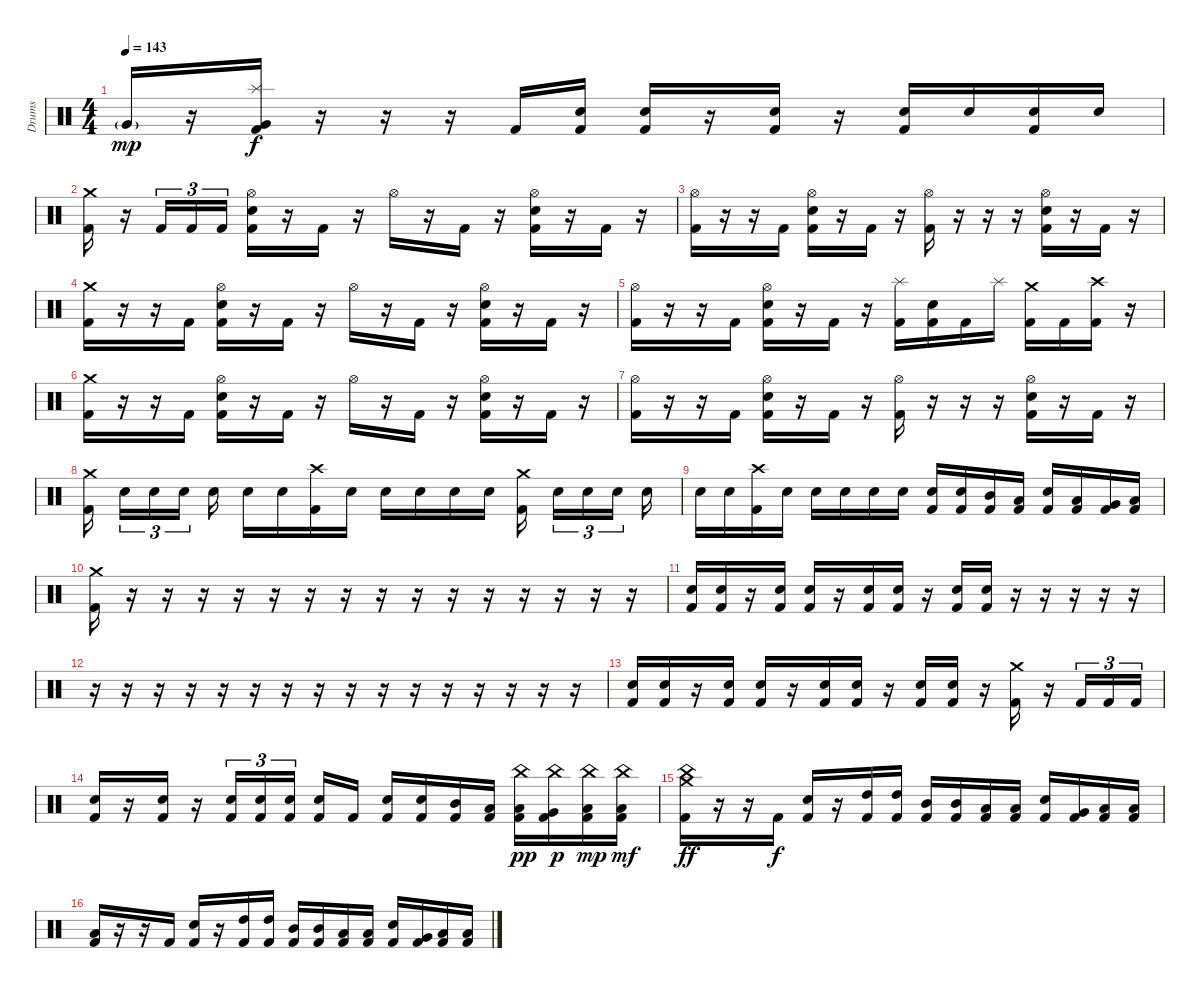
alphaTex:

\track ("Drums" "Drums") {instrument percussion}
\staff {score}
\articulation defaults
\ts (4 4)
\tempo 143
\clef neutral
\ks c "Very Low Tom (hit)"{g}.16{dy mp}
r.16 ("Splash (hit)" "Very Low Tom (hit)" "Kick (hit) 2").16{dy f} r.16 r.16 r.16 "Kick (hit) 2".16 ("Electric Snare (hit)" "Kick (hit) 2").16 ("Electric Snare (hit)" "Kick (hit) 2").16 r.16 ("Electric Snare (hit)" "Kick (hit) 2").16 r.16 ("Electric Snare (hit)" "Kick (hit) 2").16 "Electric Snare (hit)".16 ("Electric Snare (hit)" "Kick (hit) 2").16 "Electric Snare (hit)".16 |
\section ("" "")
("Crash medium (hit)" "Kick (hit) 2").16 r.16 "Kick (hit) 2".16{tu (3 2)} "Kick (hit) 2".16{tu (3 2)} "Kick (hit) 2".16{tu (3 2)} ("Hi-Hat (open)" "Electric Snare (hit)" "Kick (hit) 2").16 r.16 "Kick (hit) 2".16 r.16 "Hi-Hat (open)".16 r.16 "Kick (hit) 2".16 r.16 ("Hi-Hat (open)" "Electric Snare (hit)" "Kick (hit) 2").16 r.16 "Kick (hit) 2".16 r.16 |
("Hi-Hat (open)" "Kick (hit) 2").16 r.16 r.16 "Kick (hit) 2".16 ("Hi-Hat (open)" "Electric Snare (hit)" "Kick (hit) 2").16 r.16 "Kick (hit) 2".16 r.16 ("Hi-Hat (open)" "Kick (hit) 2").16 r.16 r.16 r.16 ("Hi-Hat (open)" "Electric Snare (hit)" "Kick (hit) 2").16 r.16 "Kick (hit) 2".16 r.16 |
("Crash medium (hit)" "Kick (hit) 2").16 r.16 r.16 "Kick (hit) 2".16 ("Hi-Hat (open)" "Electric Snare (hit)" "Kick (hit) 2").16 r.16 "Kick (hit) 2".16 r.16 "Hi-Hat (open)".16 r.16 "Kick (hit) 2".16 r.16 ("Hi-Hat (open)" "Electric Snare (hit)" "Kick (hit) 2").16 r.16 "Kick (hit) 2".16 r.16 |
("Hi-Hat (open)" "Kick (hit) 2").16 r.16 r.16 "Kick (hit) 2".16 ("Hi-Hat (open)" "Electric Snare (hit)" "Kick (hit) 2").16 r.16 "Kick (hit) 2".16 r.16 ("Splash (hit)" "Kick (hit) 2").16 ("Electric Snare (hit)" "Kick (hit) 2").16 "Kick (hit) 2".16 "Splash (hit)".16 ("Crash medium (hit)" "Kick (hit) 2").16 "Kick (hit) 2".16 ("Crash high (hit)" "Kick (hit) 2").16 r.16 |
("Crash medium (hit)" "Kick (hit) 2").16 r.16 r.16 "Kick (hit) 2".16 ("Hi-Hat (open)" "Electric Snare (hit)" "Kick (hit) 2").16 r.16 "Kick (hit) 2".16 r.16 "Hi-Hat (open)".16 r.16 "Kick (hit) 2".16 r.16 ("Hi-Hat (open)" "Electric Snare (hit)" "Kick (hit) 2").16 r.16 "Kick (hit) 2".16 r.16 |
("Hi-Hat (open)" "Kick (hit) 2").16 r.16 r.16 "Kick (hit) 2".16 ("Hi-Hat (open)" "Electric Snare (hit)" "Kick (hit) 2").16 r.16 "Kick (hit) 2".16 r.16 ("Hi-Hat (open)" "Kick (hit) 2").16 r.16 r.16 r.16 ("Hi-Hat (open)" "Electric Snare (hit)" "Kick (hit) 2").16 r.16 "Kick (hit) 2".16 r.16 |
("Crash medium (hit)" "Kick (hit) 2").16 "Electric Snare (hit)".16{tu (3 2)} "Electric Snare (hit)".16{tu (3 2)} "Electric Snare (hit)".16{tu (3 2)} "Electric Snare (hit)".16 "Electric Snare (hit)".16 "Electric Snare (hit)".16 ("Crash high (hit)" "Kick (hit) 2").16 "Electric Snare (hit)".16 "Electric Snare (hit)".16 "Electric Snare (hit)".16 "Electric Snare (hit)".16 "Electric Snare (hit)".16 ("Crash medium (hit)" "Kick (hit) 2").16 "Electric Snare (hit)".16{tu (3 2)} "Electric Snare (hit)".16{tu (3 2)} "Electric Snare (hit)".16{tu (3 2)} "Electric Snare (hit)".16 |
"Electric Snare (hit)".16 "Electric Snare (hit)".16 ("Crash high (hit)" "Kick (hit) 2").16 "Electric Snare (hit)".16 "Electric Snare (hit)".16 "Electric Snare (hit)".16 "Electric Snare (hit)".16 "Electric Snare (hit)".16 ("Electric Snare (hit)" "Kick (hit) 2").16 ("Electric Snare (hit)" "Kick (hit) 2").16 ("Mid Tom (hit)" "Kick (hit) 2").16 ("Low Tom (hit)" "Kick (hit) 2").16 ("Electric Snare (hit)" "Kick (hit) 2").16 ("Low Tom (hit)" "Kick (hit) 2").16 ("Very Low Tom (hit)" "Kick (hit) 2").16 ("Low Floor Tom (hit)" "Kick (hit) 2").16 |
\section ("" "")
("Crash medium (hit)" "Kick (hit) 2").16 r.16 r.16 r.16{volume 0} r.16 r.16 r.16 r.16 r.16 r.16 r.16 r.16 r.16 r.16 r.16 r.16 |
("Electric Snare (hit)" "Kick (hit) 2").16{volume 16} ("Electric Snare (hit)" "Kick (hit) 2").16 r.16 ("Electric Snare (hit)" "Kick (hit) 2").16 ("Electric Snare (hit)" "Kick (hit) 2").16 r.16 ("Electric Snare (hit)" "Kick (hit) 2").16 ("Electric Snare (hit)" "Kick (hit) 2").16 r.16 ("Electric Snare (hit)" "Kick (hit) 2").16 ("Electric Snare (hit)" "Kick (hit) 2").16 r.16 r.16 r.16 r.16 r.16 |
r.16 r.16 r.16 r.16 r.16 r.16 r.16 r.16 r.16 r.16 r.16 r.16 r.16 r.16 r.16 r.16 |
("Electric Snare (hit)" "Kick (hit) 2").16 ("Electric Snare (hit)" "Kick (hit) 2").16 r.16 ("Electric Snare (hit)" "Kick (hit) 2").16 ("Electric Snare (hit)" "Kick (hit) 2").16 r.16 ("Electric Snare (hit)" "Kick (hit) 2").16 ("Electric Snare (hit)" "Kick (hit) 2").16 r.16 ("Electric Snare (hit)" "Kick (hit) 2").16 ("Electric Snare (hit)" "Kick (hit) 2").16 r.16 ("Crash medium (hit)" "Kick (hit) 2").16 r.16 "Kick (hit) 2".16{tu (3 2)} "Kick (hit) 2".16{tu (3 2)} "Kick (hit) 2".16{tu (3 2)} |
("Electric Snare (hit)" "Kick (hit) 2").16 r.16 ("Electric Snare (hit)" "Kick (hit) 2").16 r.16 ("Electric Snare (hit)" "Kick (hit) 2").16{tu (3 2)} ("Electric Snare (hit)" "Kick (hit) 2").16{tu (3 2)} ("Electric Snare (hit)" "Kick (hit) 2").16{tu (3 2)} ("Electric Snare (hit)" "Kick (hit) 2").16 "Kick (hit) 2".16 ("Electric Snare (hit)" "Kick (hit) 2").16 ("Electric Snare (hit)" "Kick (hit) 2").16 ("Mid Tom (hit)" "Kick (hit) 2").16 ("Low Tom (hit)" "Kick (hit) 2").16 ("China (hit)" "Low Tom (hit)" "Kick (hit) 2").16{dy pp} ("China (hit)" "Very Low Tom (hit)" "Kick (hit) 2").16{dy p} ("China (hit)" "Low Floor Tom (hit)" "Kick (hit) 2").16{dy mp} ("China (hit)" "Low Floor Tom (hit)" "Kick (hit) 2").16{dy mf} |
\section ("" "")
("Crash medium (hit)" "China (hit)" "Kick (hit) 2").16{dy ff} r.16 r.16 "Kick (hit) 2".16{dy f} ("Electric Snare (hit)" "Kick (hit) 2").16 r.16 ("High Tom (hit)" "Kick (hit) 2").16 ("High Tom (hit)" "Kick (hit) 2").16 ("Mid Tom (hit)" "Kick (hit) 2").16 ("Mid Tom (hit)" "Kick (hit) 2").16 ("Low Tom (hit)" "Kick (hit) 2").16 ("Low Tom (hit)" "Kick (hit) 2").16 ("Electric Snare (hit)" "Kick (hit) 2").16 ("Very Low Tom (hit)" "Kick (hit) 2").16 ("Low Floor Tom (hit)" "Kick (hit) 2").16 ("Low Floor Tom (hit)" "Kick (hit) 2").16 |
("Low Floor Tom (hit)" "Kick (hit) 2").16 r.16 r.16 "Kick (hit) 2".16 ("Electric Snare (hit)" "Kick (hit) 2").16 r.16 ("High Tom (hit)" "Kick (hit) 2").16 ("High Tom (hit)" "Kick (hit) 2").16 ("Mid Tom (hit)" "Kick (hit) 2").16 ("Mid Tom (hit)" "Kick (hit) 2").16 ("Low Tom (hit)" "Kick (hit) 2").16 ("Low Tom (hit)" "Kick (hit) 2").16 ("Electric Snare (hit)" "Kick (hit) 2").16 ("Very Low Tom (hit)" "Kick (hit) 2").16 ("Low Floor Tom (hit)" "Kick (hit) 2").16 ("Low Floor Tom (hit)" "Kick (hit) 2").16
